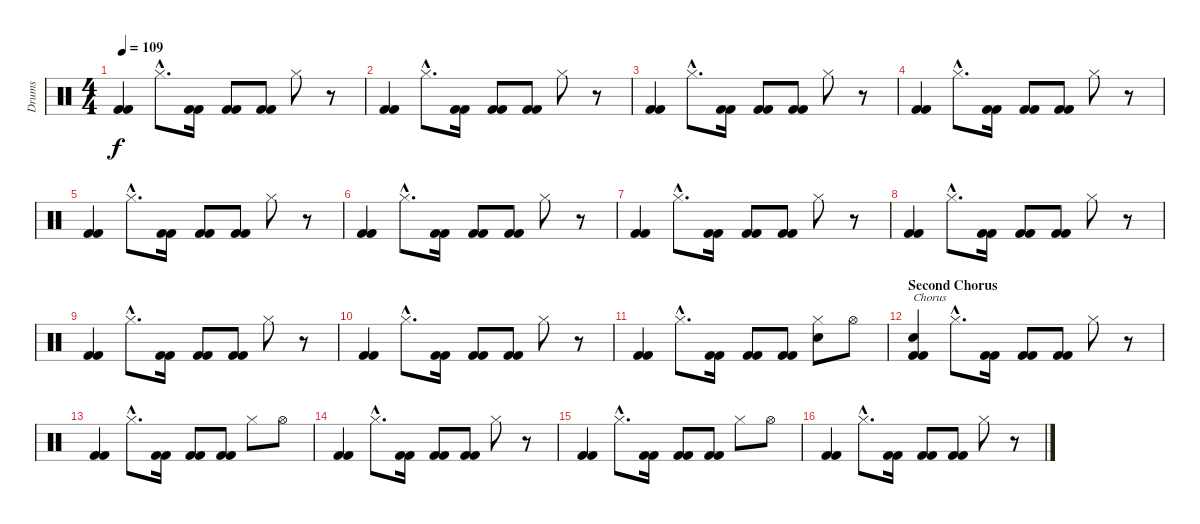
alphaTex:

\track ("Drums" "Drums") {instrument percussion}
\staff {score}
\articulation defaults
\ts (4 4)
\tempo 109
\clef neutral
\ks c
("Kick (hit) 2" "Kick (hit) 2").4{dy f} "Hi-Hat (closed)"{hac}.8{d} ("Kick (hit) 2" "Kick (hit) 2").16 ("Kick (hit) 2" "Kick (hit) 2").8 ("Kick (hit) 2" "Kick (hit) 2").8 "Hi-Hat (closed)".8 r.8 |
("Kick (hit) 2" "Kick (hit) 2").4 "Hi-Hat (closed)"{hac}.8{d} ("Kick (hit) 2" "Kick (hit) 2").16 ("Kick (hit) 2" "Kick (hit) 2").8 ("Kick (hit) 2" "Kick (hit) 2").8 "Hi-Hat (closed)".8 r.8 |
("Kick (hit) 2" "Kick (hit) 2").4 "Hi-Hat (closed)"{hac}.8{d} ("Kick (hit) 2" "Kick (hit) 2").16 ("Kick (hit) 2" "Kick (hit) 2").8 ("Kick (hit) 2" "Kick (hit) 2").8 "Hi-Hat (closed)".8 r.8 |
("Kick (hit) 2" "Kick (hit) 2").4 "Hi-Hat (closed)"{hac}.8{d} ("Kick (hit) 2" "Kick (hit) 2").16 ("Kick (hit) 2" "Kick (hit) 2").8 ("Kick (hit) 2" "Kick (hit) 2").8 "Hi-Hat (closed)".8 r.8 |
("Kick (hit) 2" "Kick (hit) 2").4 "Hi-Hat (closed)"{hac}.8{d} ("Kick (hit) 2" "Kick (hit) 2").16 ("Kick (hit) 2" "Kick (hit) 2").8 ("Kick (hit) 2" "Kick (hit) 2").8 "Hi-Hat (closed)".8 r.8 |
("Kick (hit) 2" "Kick (hit) 2").4 "Hi-Hat (closed)"{hac}.8{d} ("Kick (hit) 2" "Kick (hit) 2").16 ("Kick (hit) 2" "Kick (hit) 2").8 ("Kick (hit) 2" "Kick (hit) 2").8 "Hi-Hat (closed)".8 r.8 |
("Kick (hit) 2" "Kick (hit) 2").4 "Hi-Hat (closed)"{hac}.8{d} ("Kick (hit) 2" "Kick (hit) 2").16 ("Kick (hit) 2" "Kick (hit) 2").8 ("Kick (hit) 2" "Kick (hit) 2").8 "Hi-Hat (closed)".8 r.8 |
("Kick (hit) 2" "Kick (hit) 2").4 "Hi-Hat (closed)"{hac}.8{d} ("Kick (hit) 2" "Kick (hit) 2").16 ("Kick (hit) 2" "Kick (hit) 2").8 ("Kick (hit) 2" "Kick (hit) 2").8 "Hi-Hat (closed)".8 r.8 |
("Kick (hit) 2" "Kick (hit) 2").4 "Hi-Hat (closed)"{hac}.8{d} ("Kick (hit) 2" "Kick (hit) 2").16 ("Kick (hit) 2" "Kick (hit) 2").8 ("Kick (hit) 2" "Kick (hit) 2").8 "Hi-Hat (closed)".8 r.8 |
("Kick (hit) 2" "Kick (hit) 2").4 "Hi-Hat (closed)"{hac}.8{d} ("Kick (hit) 2" "Kick (hit) 2").16 ("Kick (hit) 2" "Kick (hit) 2").8 ("Kick (hit) 2" "Kick (hit) 2").8 "Hi-Hat (closed)".8 r.8 |
("Kick (hit) 2" "Kick (hit) 2").4 "Hi-Hat (closed)"{hac}.8{d} ("Kick (hit) 2" "Kick (hit) 2").16 ("Kick (hit) 2" "Kick (hit) 2").8 ("Kick (hit) 2" "Kick (hit) 2").8 ("Hi-Hat (closed)" "Snare (hit) 2").8{volume 9} "Hi-Hat (open)".8 |
\section ("" "Second Chorus")
("Snare (hit) 2" "Kick (hit) 2" "Kick (hit) 2").4{txt "Chorus" volume 9} "Hi-Hat (closed)"{hac}.8{d} ("Kick (hit) 2" "Kick (hit) 2").16 ("Kick (hit) 2" "Kick (hit) 2").8 ("Kick (hit) 2" "Kick (hit) 2").8 "Hi-Hat (closed)".8 r.8 |
("Kick (hit) 2" "Kick (hit) 2").4 "Hi-Hat (closed)"{hac}.8{d} ("Kick (hit) 2" "Kick (hit) 2").16 ("Kick (hit) 2" "Kick (hit) 2").8 ("Kick (hit) 2" "Kick (hit) 2").8 "Hi-Hat (closed)".8 "Hi-Hat (open)".8 |
("Kick (hit) 2" "Kick (hit) 2").4 "Hi-Hat (closed)"{hac}.8{d} ("Kick (hit) 2" "Kick (hit) 2").16 ("Kick (hit) 2" "Kick (hit) 2").8 ("Kick (hit) 2" "Kick (hit) 2").8 "Hi-Hat (closed)".8 r.8 |
("Kick (hit) 2" "Kick (hit) 2").4 "Hi-Hat (closed)"{hac}.8{d} ("Kick (hit) 2" "Kick (hit) 2").16 ("Kick (hit) 2" "Kick (hit) 2").8 ("Kick (hit) 2" "Kick (hit) 2").8 "Hi-Hat (closed)".8 "Hi-Hat (open)".8 |
("Kick (hit) 2" "Kick (hit) 2").4 "Hi-Hat (closed)"{hac}.8{d} ("Kick (hit) 2" "Kick (hit) 2").16 ("Kick (hit) 2" "Kick (hit) 2").8 ("Kick (hit) 2" "Kick (hit) 2").8 "Hi-Hat (closed)".8 r.8
